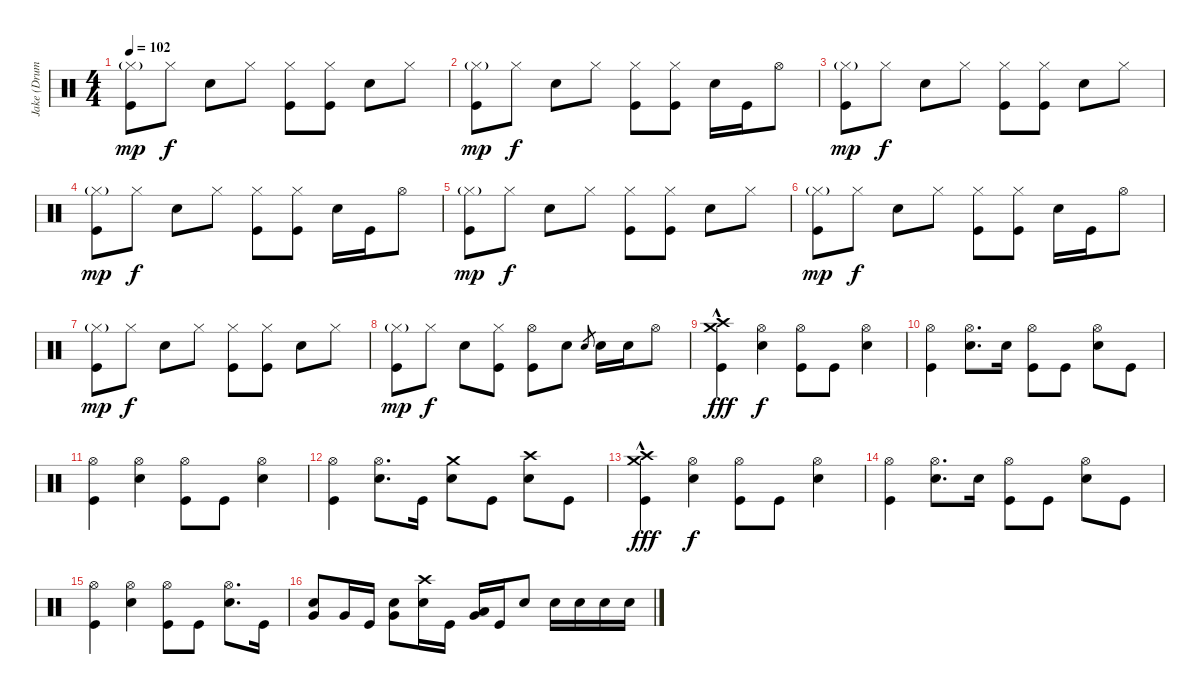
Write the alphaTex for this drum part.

\track ("Jake (Drums)" "Jake (Drum") {instrument percussion}
\staff {score}
\articulation defaults
\ts (4 4)
\tempo 102
\clef neutral
\ks c
("Hi-Hat (closed)"{g} "Kick (hit)").8{dy mp} "Hi-Hat (closed)".8{dy f} "Snare (hit) 2".8 "Hi-Hat (closed)".8 ("Hi-Hat (closed)" "Kick (hit)").8 ("Hi-Hat (closed)" "Kick (hit)").8 "Snare (hit) 2".8 "Hi-Hat (closed)".8 |
("Hi-Hat (closed)"{g} "Kick (hit)").8{dy mp} "Hi-Hat (closed)".8{dy f} "Snare (hit) 2".8 "Hi-Hat (closed)".8 ("Hi-Hat (closed)" "Kick (hit)").8 ("Hi-Hat (closed)" "Kick (hit)").8 "Snare (hit) 2".16 "Kick (hit)".16 "Hi-Hat (open)".8 |
("Hi-Hat (closed)"{g} "Kick (hit)").8{dy mp} "Hi-Hat (closed)".8{dy f} "Snare (hit) 2".8 "Hi-Hat (closed)".8 ("Hi-Hat (closed)" "Kick (hit)").8 ("Hi-Hat (closed)" "Kick (hit)").8 "Snare (hit) 2".8 "Hi-Hat (closed)".8 |
("Hi-Hat (closed)"{g} "Kick (hit)").8{dy mp} "Hi-Hat (closed)".8{dy f} "Snare (hit) 2".8 "Hi-Hat (closed)".8 ("Hi-Hat (closed)" "Kick (hit)").8 ("Hi-Hat (closed)" "Kick (hit)").8 "Snare (hit) 2".16 "Kick (hit)".16 "Hi-Hat (open)".8 |
("Hi-Hat (closed)"{g} "Kick (hit)").8{dy mp} "Hi-Hat (closed)".8{dy f} "Snare (hit) 2".8 "Hi-Hat (closed)".8 ("Hi-Hat (closed)" "Kick (hit)").8 ("Hi-Hat (closed)" "Kick (hit)").8 "Snare (hit) 2".8 "Hi-Hat (closed)".8 |
("Hi-Hat (closed)"{g} "Kick (hit)").8{dy mp} "Hi-Hat (closed)".8{dy f} "Snare (hit) 2".8 "Hi-Hat (closed)".8 ("Hi-Hat (closed)" "Kick (hit)").8 ("Hi-Hat (closed)" "Kick (hit)").8 "Snare (hit) 2".16 "Kick (hit)".16 "Hi-Hat (open)".8 |
("Hi-Hat (closed)"{g} "Kick (hit)").8{dy mp} "Hi-Hat (closed)".8{dy f} "Snare (hit) 2".8 "Hi-Hat (closed)".8 ("Hi-Hat (closed)" "Kick (hit)").8 ("Hi-Hat (closed)" "Kick (hit)").8 "Snare (hit) 2".8 "Hi-Hat (closed)".8 |
("Hi-Hat (closed)"{g} "Kick (hit)").8{dy mp} "Hi-Hat (closed)".8{dy f} "Snare (hit) 2".8 ("Hi-Hat (closed)" "Kick (hit)").8 ("Hi-Hat (open)" "Kick (hit)").8 "Snare (hit) 2".8 "Snare (hit) 2".8{gr} "Snare (hit) 2".16 "Snare (hit) 2".16 "Hi-Hat (open)".8 |
("Crash high (hit)"{hac} "Crash medium (hit)" "Kick (hit)").4{dy fff} ("Hi-Hat (open)" "Snare (hit) 2").4{dy f} ("Hi-Hat (open)" "Kick (hit)").8 "Kick (hit)".8 ("Hi-Hat (open)" "Snare (hit) 2").4 |
("Hi-Hat (open)" "Kick (hit)").4 ("Hi-Hat (open)" "Snare (hit) 2").8{d} "Snare (hit) 2".16 ("Hi-Hat (open)" "Kick (hit)").8 "Kick (hit)".8 ("Hi-Hat (open)" "Snare (hit) 2").8 "Kick (hit)".8 |
("Hi-Hat (open)" "Kick (hit)").4 ("Hi-Hat (open)" "Snare (hit) 2").4 ("Hi-Hat (open)" "Kick (hit)").8 "Kick (hit)".8 ("Hi-Hat (open)" "Snare (hit) 2").4 |
("Hi-Hat (open)" "Kick (hit)").4 ("Hi-Hat (open)" "Snare (hit) 2").8{d} "Kick (hit)".16 ("Crash medium (hit)" "Snare (hit) 2").8 "Kick (hit)".8 ("Crash high (hit)" "Snare (hit) 2").8 "Kick (hit)".8 |
("Crash high (hit)"{hac} "Crash medium (hit)" "Kick (hit)").4{dy fff} ("Hi-Hat (open)" "Snare (hit) 2").4{dy f} ("Hi-Hat (open)" "Kick (hit)").8 "Kick (hit)".8 ("Hi-Hat (open)" "Snare (hit) 2").4 |
("Hi-Hat (open)" "Kick (hit)").4 ("Hi-Hat (open)" "Snare (hit) 2").8{d} "Snare (hit) 2".16 ("Hi-Hat (open)" "Kick (hit)").8 "Kick (hit)".8 ("Hi-Hat (open)" "Snare (hit) 2").8 "Kick (hit)".8 |
("Hi-Hat (open)" "Kick (hit)").4 ("Hi-Hat (open)" "Snare (hit) 2").4 ("Hi-Hat (open)" "Kick (hit)").8 "Kick (hit)".8 ("Hi-Hat (open)" "Snare (hit) 2").8{d} "Kick (hit)".16 |
("Snare (hit) 2" "Very Low Tom (hit)").8 "Very Low Tom (hit)".16 "Kick (hit)".16 ("Snare (hit) 2" "Very Low Tom (hit)").8 ("Crash high (hit)" "Snare (hit) 2").16 "Kick (hit)".16 ("Low Tom (hit)" "Very Low Tom (hit)").16 "Kick (hit)".16 "Snare (hit) 2".8 "Snare (hit) 2".16 "Snare (hit) 2".16 "Snare (hit) 2".16 "Snare (hit) 2".16
